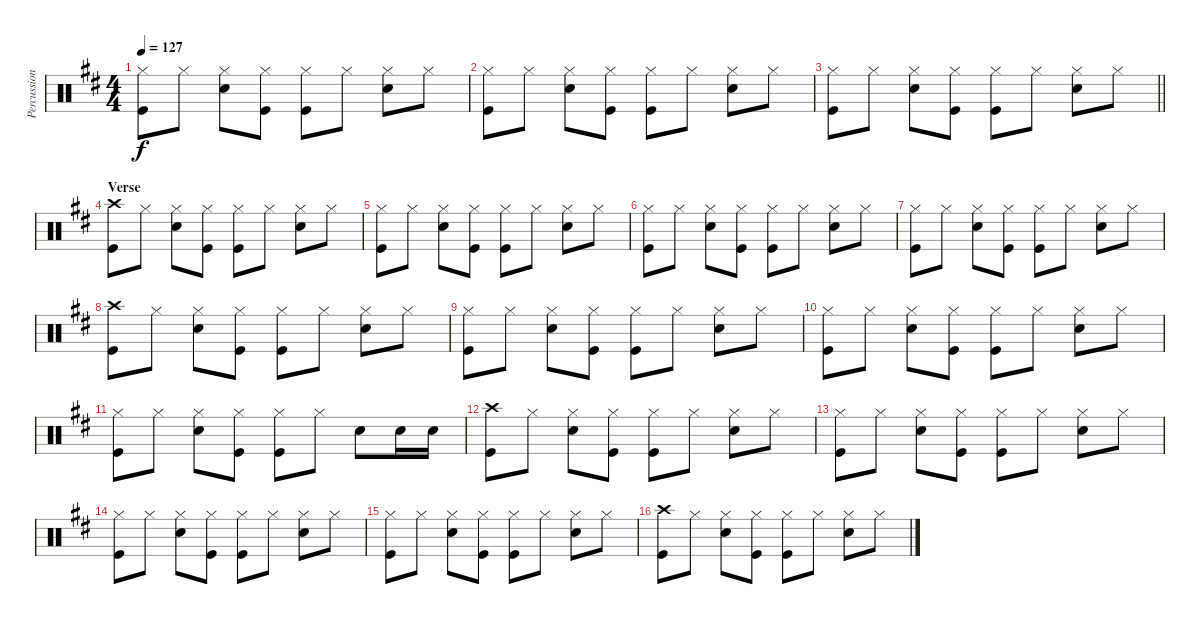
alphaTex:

\track ("Percussion" "Percussion") {instrument percussion}
\staff {score}
\articulation defaults
\ts (4 4)
\tempo 127
\clef neutral
\ks d
("Hi-Hat (closed)" "Kick (hit)").8{dy f} "Hi-Hat (closed)".8 ("Hi-Hat (closed)" "Snare (hit) 2").8 ("Hi-Hat (closed)" "Kick (hit)").8 ("Hi-Hat (closed)" "Kick (hit)").8 "Hi-Hat (closed)".8 ("Hi-Hat (closed)" "Snare (hit) 2").8 "Hi-Hat (closed)".8 |
("Hi-Hat (closed)" "Kick (hit)").8 "Hi-Hat (closed)".8 ("Hi-Hat (closed)" "Snare (hit) 2").8 ("Hi-Hat (closed)" "Kick (hit)").8 ("Hi-Hat (closed)" "Kick (hit)").8 "Hi-Hat (closed)".8 ("Hi-Hat (closed)" "Snare (hit) 2").8 "Hi-Hat (closed)".8 |
\barLineRight lightlight
("Hi-Hat (closed)" "Kick (hit)").8 "Hi-Hat (closed)".8 ("Hi-Hat (closed)" "Snare (hit) 2").8 ("Hi-Hat (closed)" "Kick (hit)").8 ("Hi-Hat (closed)" "Kick (hit)").8 "Hi-Hat (closed)".8 ("Hi-Hat (closed)" "Snare (hit) 2").8 "Hi-Hat (closed)".8 |
\section ("" "Verse")
("Crash high (hit)" "Kick (hit)").8 "Hi-Hat (closed)".8 ("Hi-Hat (closed)" "Snare (hit) 2").8 ("Hi-Hat (closed)" "Kick (hit)").8 ("Hi-Hat (closed)" "Kick (hit)").8 "Hi-Hat (closed)".8 ("Hi-Hat (closed)" "Snare (hit) 2").8 "Hi-Hat (closed)".8 |
("Hi-Hat (closed)" "Kick (hit)").8 "Hi-Hat (closed)".8 ("Hi-Hat (closed)" "Snare (hit) 2").8 ("Hi-Hat (closed)" "Kick (hit)").8 ("Hi-Hat (closed)" "Kick (hit)").8 "Hi-Hat (closed)".8 ("Hi-Hat (closed)" "Snare (hit) 2").8 "Hi-Hat (closed)".8 |
("Hi-Hat (closed)" "Kick (hit)").8 "Hi-Hat (closed)".8 ("Hi-Hat (closed)" "Snare (hit) 2").8 ("Hi-Hat (closed)" "Kick (hit)").8 ("Hi-Hat (closed)" "Kick (hit)").8 "Hi-Hat (closed)".8 ("Hi-Hat (closed)" "Snare (hit) 2").8 "Hi-Hat (closed)".8 |
("Hi-Hat (closed)" "Kick (hit)").8 "Hi-Hat (closed)".8 ("Hi-Hat (closed)" "Snare (hit) 2").8 ("Hi-Hat (closed)" "Kick (hit)").8 ("Hi-Hat (closed)" "Kick (hit)").8 "Hi-Hat (closed)".8 ("Hi-Hat (closed)" "Snare (hit) 2").8 "Hi-Hat (closed)".8 |
("Crash high (hit)" "Kick (hit)").8 "Hi-Hat (closed)".8 ("Hi-Hat (closed)" "Snare (hit) 2").8 ("Hi-Hat (closed)" "Kick (hit)").8 ("Hi-Hat (closed)" "Kick (hit)").8 "Hi-Hat (closed)".8 ("Hi-Hat (closed)" "Snare (hit) 2").8 "Hi-Hat (closed)".8 |
("Hi-Hat (closed)" "Kick (hit)").8 "Hi-Hat (closed)".8 ("Hi-Hat (closed)" "Snare (hit) 2").8 ("Hi-Hat (closed)" "Kick (hit)").8 ("Hi-Hat (closed)" "Kick (hit)").8 "Hi-Hat (closed)".8 ("Hi-Hat (closed)" "Snare (hit) 2").8 "Hi-Hat (closed)".8 |
("Hi-Hat (closed)" "Kick (hit)").8 "Hi-Hat (closed)".8 ("Hi-Hat (closed)" "Snare (hit) 2").8 ("Hi-Hat (closed)" "Kick (hit)").8 ("Hi-Hat (closed)" "Kick (hit)").8 "Hi-Hat (closed)".8 ("Hi-Hat (closed)" "Snare (hit) 2").8 "Hi-Hat (closed)".8 |
("Hi-Hat (closed)" "Kick (hit)").8 "Hi-Hat (closed)".8 ("Hi-Hat (closed)" "Snare (hit) 2").8 ("Hi-Hat (closed)" "Kick (hit)").8 ("Hi-Hat (closed)" "Kick (hit)").8 "Hi-Hat (closed)".8 "Snare (hit) 2".8 "Snare (hit) 2".16 "Snare (hit) 2".16 |
("Crash high (hit)" "Kick (hit)").8 "Hi-Hat (closed)".8 ("Hi-Hat (closed)" "Snare (hit) 2").8 ("Hi-Hat (closed)" "Kick (hit)").8 ("Hi-Hat (closed)" "Kick (hit)").8 "Hi-Hat (closed)".8 ("Hi-Hat (closed)" "Snare (hit) 2").8 "Hi-Hat (closed)".8 |
("Hi-Hat (closed)" "Kick (hit)").8 "Hi-Hat (closed)".8 ("Hi-Hat (closed)" "Snare (hit) 2").8 ("Hi-Hat (closed)" "Kick (hit)").8 ("Hi-Hat (closed)" "Kick (hit)").8 "Hi-Hat (closed)".8 ("Hi-Hat (closed)" "Snare (hit) 2").8 "Hi-Hat (closed)".8 |
("Hi-Hat (closed)" "Kick (hit)").8 "Hi-Hat (closed)".8 ("Hi-Hat (closed)" "Snare (hit) 2").8 ("Hi-Hat (closed)" "Kick (hit)").8 ("Hi-Hat (closed)" "Kick (hit)").8 "Hi-Hat (closed)".8 ("Hi-Hat (closed)" "Snare (hit) 2").8 "Hi-Hat (closed)".8 |
("Hi-Hat (closed)" "Kick (hit)").8 "Hi-Hat (closed)".8 ("Hi-Hat (closed)" "Snare (hit) 2").8 ("Hi-Hat (closed)" "Kick (hit)").8 ("Hi-Hat (closed)" "Kick (hit)").8 "Hi-Hat (closed)".8 ("Hi-Hat (closed)" "Snare (hit) 2").8 "Hi-Hat (closed)".8 |
("Crash high (hit)" "Kick (hit)").8 "Hi-Hat (closed)".8 ("Hi-Hat (closed)" "Snare (hit) 2").8 ("Hi-Hat (closed)" "Kick (hit)").8 ("Hi-Hat (closed)" "Kick (hit)").8 "Hi-Hat (closed)".8 ("Hi-Hat (closed)" "Snare (hit) 2").8 "Hi-Hat (closed)".8
